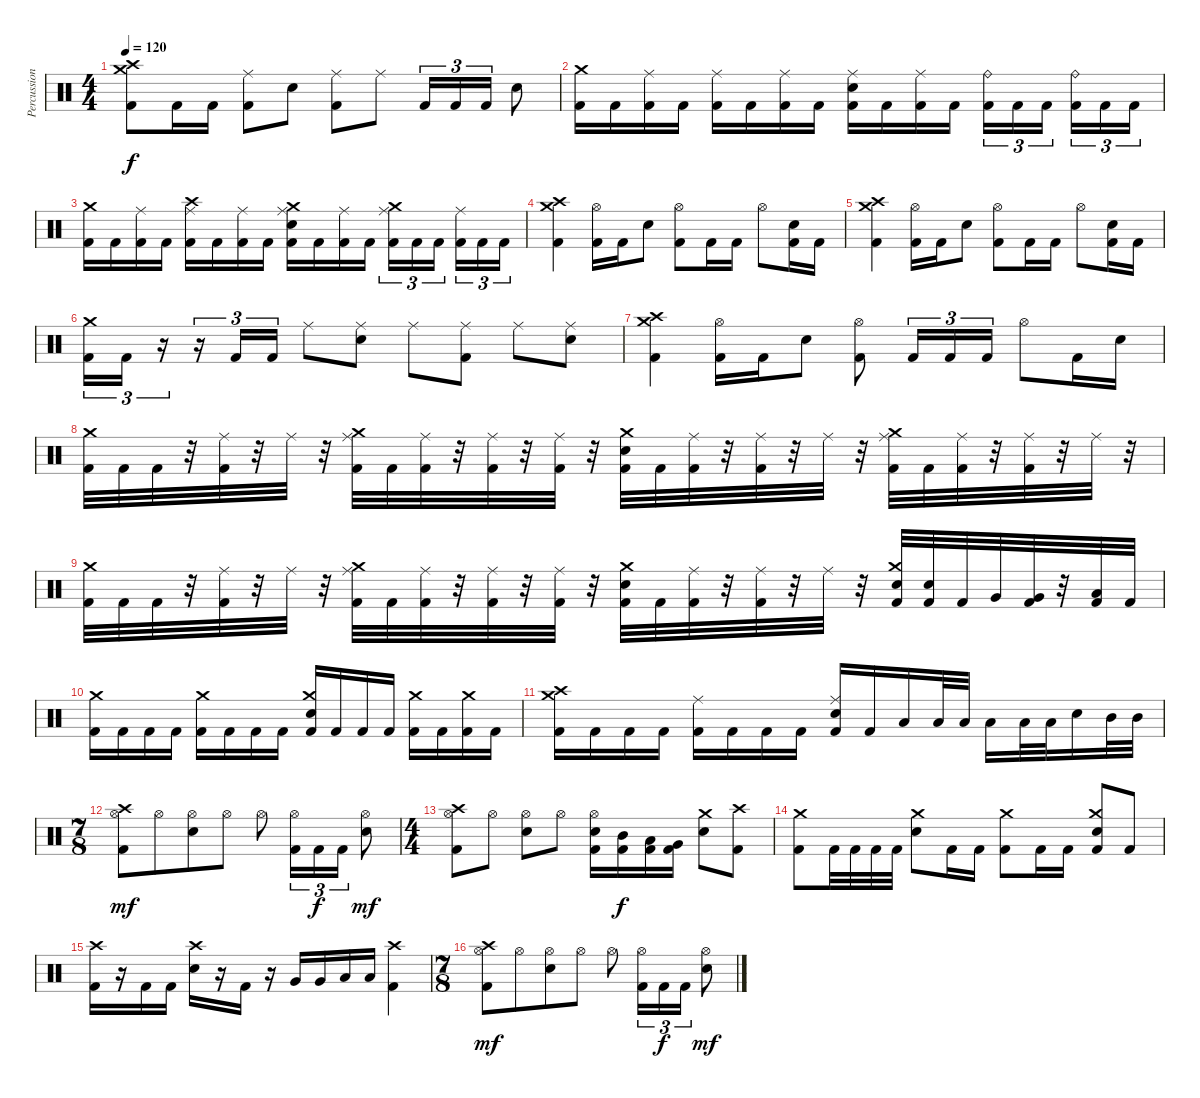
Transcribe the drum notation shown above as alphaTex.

\track ("Percussion" "Percussion") {instrument percussion}
\staff {score}
\articulation defaults
\ts (4 4)
\tempo 120
\clef neutral
\ks c
("Kick (hit) 2" "Crash high (hit)" "Crash medium (hit)").8{dy f} "Kick (hit) 2".16 "Kick (hit) 2".16 ("Kick (hit) 2" "Ride (middle)").8 "Electric Snare (hit)".8 ("Kick (hit) 2" "Ride (middle)").8 "Ride (middle)".8 "Kick (hit) 2".16{tu (3 2)} "Kick (hit) 2".16{tu (3 2)} "Kick (hit) 2".16{tu (3 2)} "Electric Snare (hit)".8 |
("Kick (hit) 2" "Crash medium (hit)").16 "Kick (hit) 2".16 ("Kick (hit) 2" "Ride (middle)").16 "Kick (hit) 2".16 ("Kick (hit) 2" "Ride (middle)").16 "Kick (hit) 2".16 ("Kick (hit) 2" "Ride (middle)").16 "Kick (hit) 2".16 ("Kick (hit) 2" "Electric Snare (hit)" "Ride (middle)").16 "Kick (hit) 2".16 ("Kick (hit) 2" "Ride (middle)").16 "Kick (hit) 2".16 ("Kick (hit) 2" "Ride (bell)").16{tu (3 2)} "Kick (hit) 2".16{tu (3 2)} "Kick (hit) 2".16{tu (3 2)} ("Kick (hit) 2" "Ride (bell)").16{tu (3 2)} "Kick (hit) 2".16{tu (3 2)} "Kick (hit) 2".16{tu (3 2)} |
("Kick (hit) 2" "Crash medium (hit)").16 "Kick (hit) 2".16 ("Kick (hit) 2" "Ride (middle)").16 "Kick (hit) 2".16 ("Kick (hit) 2" "Ride (middle)" "Crash high (hit)").16 "Kick (hit) 2".16 ("Kick (hit) 2" "Ride (middle)").16 "Kick (hit) 2".16 ("Kick (hit) 2" "Electric Snare (hit)" "Ride (middle)" "Crash medium (hit)").16 "Kick (hit) 2".16 ("Kick (hit) 2" "Ride (middle)").16 "Kick (hit) 2".16 ("Kick (hit) 2" "Ride (middle)" "Crash medium (hit)").16{tu (3 2)} "Kick (hit) 2".16{tu (3 2)} "Kick (hit) 2".16{tu (3 2)} ("Kick (hit) 2" "Ride (middle)").16{tu (3 2)} "Kick (hit) 2".16{tu (3 2)} "Kick (hit) 2".16{tu (3 2)} |
("Kick (hit) 2" "Crash high (hit)" "Crash medium (hit)").4 ("Kick (hit) 2" "Hi-Hat (open)").16 "Kick (hit) 2".16 "Electric Snare (hit)".8 ("Kick (hit) 2" "Hi-Hat (open)").8 "Kick (hit) 2".16 "Kick (hit) 2".16 "Hi-Hat (open)".8 ("Kick (hit) 2" "Electric Snare (hit)").16 "Kick (hit) 2".16 |
("Kick (hit) 2" "Crash high (hit)" "Crash medium (hit)").4 ("Kick (hit) 2" "Hi-Hat (open)").16 "Kick (hit) 2".16 "Electric Snare (hit)".8 ("Kick (hit) 2" "Hi-Hat (open)").8 "Kick (hit) 2".16 "Kick (hit) 2".16 "Hi-Hat (open)".8 ("Kick (hit) 2" "Electric Snare (hit)").16 "Kick (hit) 2".16 |
("Kick (hit) 2" "Crash medium (hit)").16{tu (3 2)} "Kick (hit) 2".16{tu (3 2)} r.16{tu (3 2)} r.16{tu (3 2)} "Kick (hit) 2".16{tu (3 2)} "Kick (hit) 2".16{tu (3 2)} "Ride (middle)".8 ("Electric Snare (hit)" "Ride (middle)").8 "Ride (middle)".8 ("Kick (hit) 2" "Ride (middle)").8 "Ride (middle)".8 ("Electric Snare (hit)" "Ride (middle)").8 |
("Kick (hit) 2" "Crash high (hit)" "Crash medium (hit)").4 ("Kick (hit) 2" "Hi-Hat (open)").16 "Kick (hit) 2".16 "Electric Snare (hit)".8 ("Kick (hit) 2" "Hi-Hat (open)").8 "Kick (hit) 2".16{tu (3 2)} "Kick (hit) 2".16{tu (3 2)} "Kick (hit) 2".16{tu (3 2)} "Hi-Hat (open)".8 "Kick (hit) 2".16 "Electric Snare (hit)".16 |
("Kick (hit) 2" "Crash medium (hit)").32 "Kick (hit) 2".32 "Kick (hit) 2".32 r.32 ("Kick (hit) 2" "Ride (middle)").32 r.32 "Ride (middle)".32 r.32 ("Kick (hit) 2" "Ride (middle)" "Crash medium (hit)").32 "Kick (hit) 2".32 ("Kick (hit) 2" "Ride (middle)").32 r.32 ("Kick (hit) 2" "Ride (middle)").32 r.32 ("Kick (hit) 2" "Ride (middle)").32 r.32 ("Kick (hit) 2" "Electric Snare (hit)" "Crash medium (hit)").32 "Kick (hit) 2".32 ("Kick (hit) 2" "Ride (middle)").32 r.32 ("Kick (hit) 2" "Ride (middle)").32 r.32 "Ride (middle)".32 r.32 ("Kick (hit) 2" "Ride (middle)" "Crash medium (hit)").32 "Kick (hit) 2".32 ("Kick (hit) 2" "Ride (middle)").32 r.32 ("Kick (hit) 2" "Ride (middle)").32 r.32 "Ride (middle)".32 r.32 |
("Kick (hit) 2" "Crash medium (hit)").32 "Kick (hit) 2".32 "Kick (hit) 2".32 r.32 ("Kick (hit) 2" "Ride (middle)").32 r.32 "Ride (middle)".32 r.32 ("Kick (hit) 2" "Ride (middle)" "Crash medium (hit)").32 "Kick (hit) 2".32 ("Kick (hit) 2" "Ride (middle)").32 r.32 ("Kick (hit) 2" "Ride (middle)").32 r.32 ("Kick (hit) 2" "Ride (middle)").32 r.32 ("Kick (hit) 2" "Electric Snare (hit)" "Crash medium (hit)").32 "Kick (hit) 2".32 ("Kick (hit) 2" "Ride (middle)").32 r.32 ("Kick (hit) 2" "Ride (middle)").32 r.32 "Ride (middle)".32 r.32 ("Kick (hit) 2" "Electric Snare (hit)" "Crash medium (hit)").32 ("Kick (hit) 2" "Electric Snare (hit)").32 "Kick (hit) 2".32 "Very Low Tom (hit)".32 ("Kick (hit) 2" "Very Low Tom (hit)").32 r.32 ("Kick (hit) 2" "Low Tom (hit)").32 "Kick (hit) 2".32 |
("Kick (hit) 2" "Crash medium (hit)").16 "Kick (hit) 2".16 "Kick (hit) 2".16 "Kick (hit) 2".16 ("Kick (hit) 2" "Crash medium (hit)").16 "Kick (hit) 2".16 "Kick (hit) 2".16 "Kick (hit) 2".16 ("Kick (hit) 2" "Electric Snare (hit)" "Crash medium (hit)").16 "Kick (hit) 2".16 "Kick (hit) 2".16 "Kick (hit) 2".16 ("Kick (hit) 2" "Crash medium (hit)").16 "Kick (hit) 2".16 ("Kick (hit) 2" "Crash medium (hit)").16 "Kick (hit) 2".16 |
("Kick (hit) 2" "Crash high (hit)" "Crash medium (hit)").16 "Kick (hit) 2".16 "Kick (hit) 2".16 "Kick (hit) 2".16 ("Kick (hit) 2" "Ride (middle)").16 "Kick (hit) 2".16 "Kick (hit) 2".16 "Kick (hit) 2".16 ("Kick (hit) 2" "Electric Snare (hit)" "Ride (middle)").16 "Kick (hit) 2".16 "Low Tom (hit)".16 "Low Tom (hit)".32 "Low Tom (hit)".32 "Low Floor Tom (hit)".16 "Low Floor Tom (hit)".32 "Low Floor Tom (hit)".32 "Electric Snare (hit)".16 "Mid Tom (hit)".32 "Mid Tom (hit)".32 |
\ts (7 8)
("Crash high (hit)" "Hi-Hat (open)" "Kick (hit) 2").8{dy mf} "Hi-Hat (open)".8 ("Hi-Hat (open)" "Electric Snare (hit)").8 "Hi-Hat (open)".8 "Hi-Hat (open)".8 ("Hi-Hat (open)" "Kick (hit) 2").16{tu (3 2)} "Kick (hit) 2".16{tu (3 2) dy f} "Kick (hit) 2".16{tu (3 2)} ("Hi-Hat (open)" "Electric Snare (hit)").8{dy mf} |
\ts (4 4)
("Crash high (hit)" "Hi-Hat (open)" "Kick (hit) 2").8 "Hi-Hat (open)".8 ("Hi-Hat (open)" "Electric Snare (hit)").8 "Hi-Hat (open)".8 ("Hi-Hat (open)" "Electric Snare (hit)" "Kick (hit) 2").16 ("Mid Tom (hit)" "Kick (hit) 2").16{dy f} ("Low Tom (hit)" "Kick (hit) 2").16 ("Very Low Tom (hit)" "Kick (hit) 2").16 ("Crash medium (hit)" "Electric Snare (hit)").8 ("Crash high (hit)" "Kick (hit) 2").8 |
("Kick (hit) 2" "Crash medium (hit)").8 "Kick (hit) 2".32 "Kick (hit) 2".32 "Kick (hit) 2".32 "Kick (hit) 2".32 ("Electric Snare (hit)" "Crash medium (hit)").8 "Kick (hit) 2".16 "Kick (hit) 2".16 ("Kick (hit) 2" "Crash medium (hit)").8 "Kick (hit) 2".16 "Kick (hit) 2".16 ("Kick (hit) 2" "Electric Snare (hit)" "Crash medium (hit)").8 "Kick (hit) 2".8 |
("Kick (hit) 2" "Crash high (hit)").16 r.16 "Kick (hit) 2".16 "Kick (hit) 2".16 ("Electric Snare (hit)" "Crash high (hit)").16 r.16 "Kick (hit) 2".16 r.16 "Very Low Tom (hit)".16 "Very Low Tom (hit)".16 "Low Tom (hit)".16 "Low Tom (hit)".16 ("Kick (hit) 2" "Crash high (hit)").4 |
\ts (7 8)
("Crash high (hit)" "Hi-Hat (open)" "Kick (hit) 2").8{dy mf} "Hi-Hat (open)".8 ("Hi-Hat (open)" "Electric Snare (hit)").8 "Hi-Hat (open)".8 "Hi-Hat (open)".8 ("Hi-Hat (open)" "Kick (hit) 2").16{tu (3 2)} "Kick (hit) 2".16{tu (3 2) dy f} "Kick (hit) 2".16{tu (3 2)} ("Hi-Hat (open)" "Electric Snare (hit)").8{dy mf}
